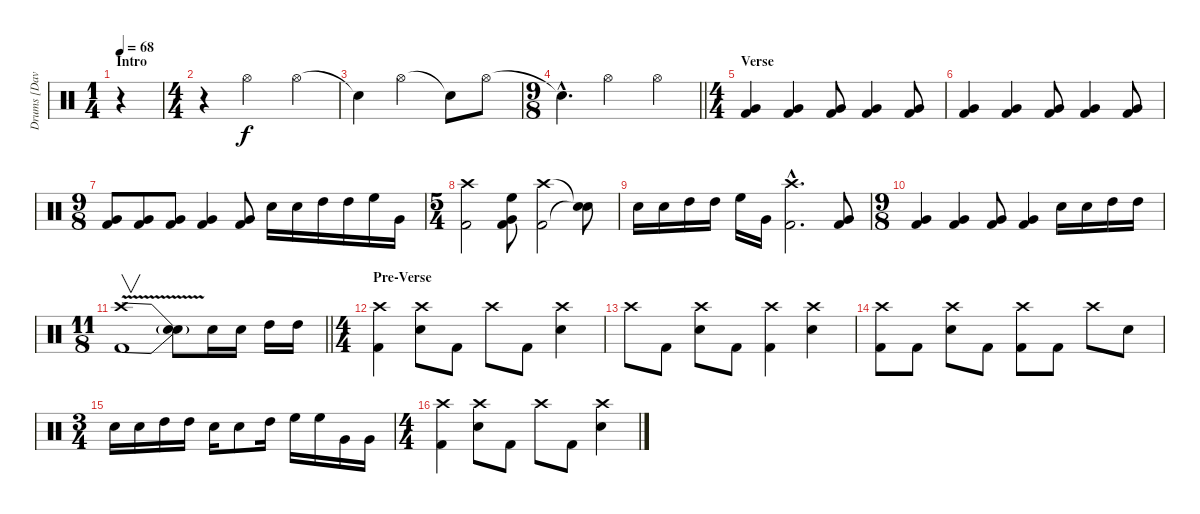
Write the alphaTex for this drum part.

\track ("Drums [Dave Lombardo]" "Drums [Dav") {instrument percussion}
\staff {score}
\articulation defaults
\ts (1 4)
\section ("" "Intro")
\tempo 68
\clef neutral
\ks c
r.4{dy f} |
\ts (4 4)
r.4 "Hi-Hat (open)".2 "Hi-Hat (open)".4 |
"Snare (hit)"{t}.4 "Hi-Hat (open)".2 "Snare (hit)"{t}.8 "Hi-Hat (open)".8 |
\ts (9 8)
\barLineRight lightlight "Snare (hit)"{hac t}.4{d} "Hi-Hat (open)".2 "Hi-Hat (open)".4
|
\ts (4 4)
\section ("" "Verse")
("Very Low Tom (hit)" "Kick (hit) 2").4 ("Very Low Tom (hit)" "Kick (hit) 2").4 ("Very Low Tom (hit)" "Kick (hit) 2").8 ("Very Low Tom (hit)" "Kick (hit) 2").4 ("Very Low Tom (hit)" "Kick (hit) 2").8 |
("Very Low Tom (hit)" "Kick (hit) 2").4 ("Very Low Tom (hit)" "Kick (hit) 2").4 ("Very Low Tom (hit)" "Kick (hit) 2").8 ("Very Low Tom (hit)" "Kick (hit) 2").4 ("Very Low Tom (hit)" "Kick (hit) 2").8 |
\ts (9 8)
("Very Low Tom (hit)" "Kick (hit) 2").8 ("Very Low Tom (hit)" "Kick (hit) 2").8 ("Very Low Tom (hit)" "Kick (hit) 2").8 ("Very Low Tom (hit)" "Kick (hit) 2").4 ("Very Low Tom (hit)" "Kick (hit) 2").8 "Electric Snare (hit)".16 "Electric Snare (hit)".16 "High Tom (hit)".16 "High Tom (hit)".16 "High Floor Tom (hit)".16 "Very Low Tom (hit)".16 |
\ts (5 4)
("Crash high (hit)" "Kick (hit) 2").2 ("High Floor Tom (hit)" "Very Low Tom (hit)" "Kick (hit) 2").8 ("Crash high (hit)" "Kick (hit) 2").2 ("Snare (hit)"{t} "Snare (hit)"{t}).8 |
"Electric Snare (hit)".16 "Electric Snare (hit)".16 "High Tom (hit)".16 "High Tom (hit)".16 "High Floor Tom (hit)".16 "Very Low Tom (hit)".16 ("Crash high (hit)"{hac} "Kick (hit) 2"{hac}).2{d} ("Very Low Tom (hit)" "Kick (hit) 2").8 |
\ts (9 8)
("Very Low Tom (hit)" "Kick (hit) 2").4 ("Very Low Tom (hit)" "Kick (hit) 2").4 ("Very Low Tom (hit)" "Kick (hit) 2").8 ("Very Low Tom (hit)" "Kick (hit) 2").4 "Electric Snare (hit)".16 "Electric Snare (hit)".16 "High Tom (hit)".16 "High Tom (hit)".16 |
\ts (11 8)
\barLineRight lightlight
("Crash high (hit)"{be (custom 0 0 10 4 20 4 30 0 40 0 50 4 60 4) v} "Kick (hit) 2"{be (custom 0 0 10 4 20 4 30 0 40 0 50 4 60 4) v}).1{v} ("Snare (hit)"{t} "Snare (hit)"{t}).8 "Electric Snare (hit)".16 "Electric Snare (hit)".16 "High Tom (hit)".16 "High Tom (hit)".16 |
\ts (4 4)
\section ("" "Pre-Verse")
("Crash high (hit)" "Kick (hit) 2").4 ("Crash high (hit)" "Electric Snare (hit)").8 "Kick (hit) 2".8 "Crash high (hit)".8 "Kick (hit) 2".8 ("Crash high (hit)" "Electric Snare (hit)").4 |
"Crash high (hit)".8 "Kick (hit) 2".8 ("Crash high (hit)" "Electric Snare (hit)").8 "Kick (hit) 2".8 ("Crash high (hit)" "Kick (hit) 2").4 ("Crash high (hit)" "Electric Snare (hit)").4 |
("Crash high (hit)" "Kick (hit) 2").8 "Kick (hit) 2".8 ("Crash high (hit)" "Electric Snare (hit)").8 "Kick (hit) 2".8 ("Crash high (hit)" "Kick (hit) 2").8 "Kick (hit) 2".8 "Crash high (hit)".8 "Electric Snare (hit)".8 |
\ts (3 4)
"Electric Snare (hit)".16 "Electric Snare (hit)".16 "High Tom (hit)".16 "High Tom (hit)".16 "Electric Snare (hit)".16 "Electric Snare (hit)".8 "High Tom (hit)".16 "High Floor Tom (hit)".16 "High Floor Tom (hit)".16 "Very Low Tom (hit)".16 "Very Low Tom (hit)".16 |
\ts (4 4)
("Crash high (hit)" "Kick (hit) 2").4 ("Crash high (hit)" "Electric Snare (hit)").8 "Kick (hit) 2".8 "Crash high (hit)".8 "Kick (hit) 2".8 ("Crash high (hit)" "Electric Snare (hit)").4
